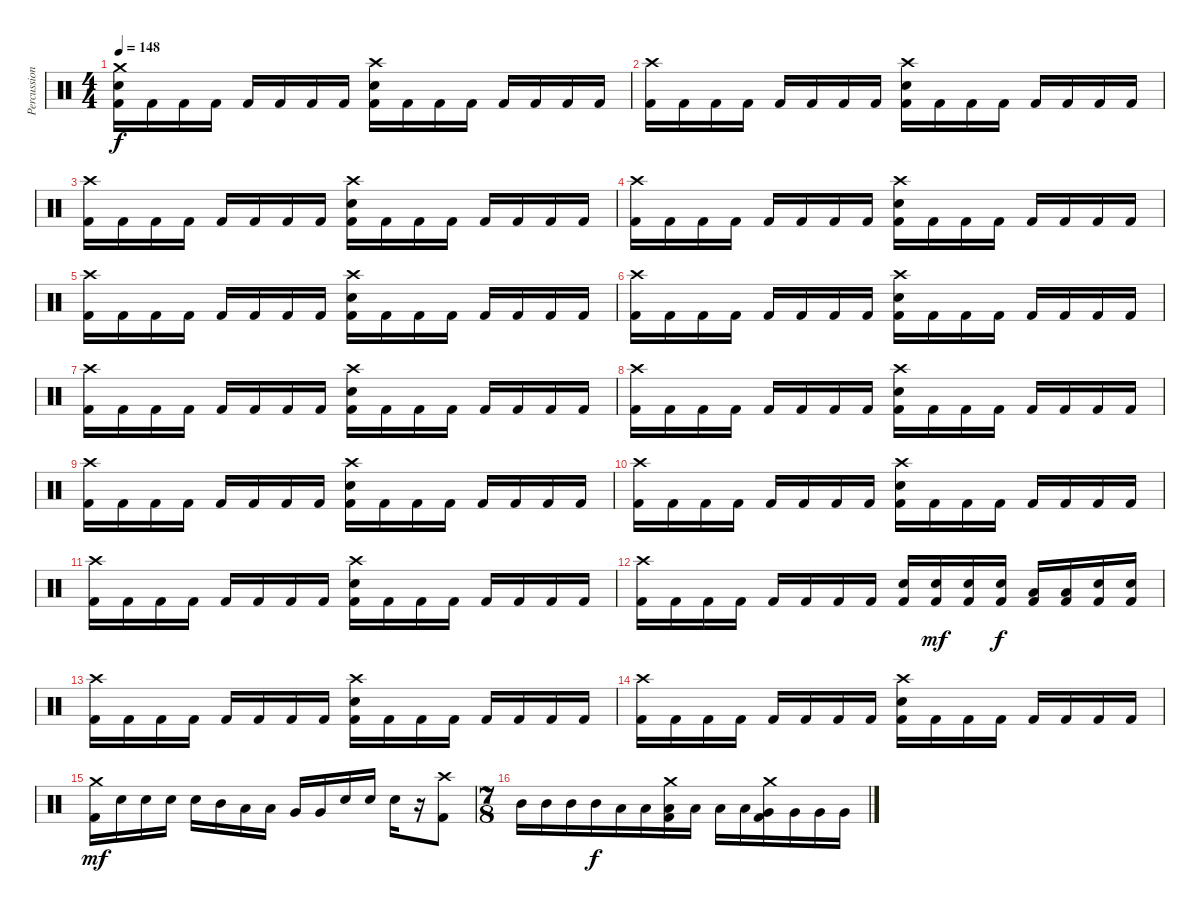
\track ("Percussion" "Percussion") {instrument percussion}
\staff {score}
\articulation defaults
\ts (4 4)
\tempo 148
\clef neutral
\ks c
("Crash medium (hit)" "Electric Snare (hit)" "Kick (hit) 2").16{dy f} "Kick (hit) 2".16 "Kick (hit) 2".16 "Kick (hit) 2".16 "Kick (hit) 2".16 "Kick (hit) 2".16 "Kick (hit) 2".16 "Kick (hit) 2".16 ("Crash high (hit)" "Electric Snare (hit)" "Kick (hit) 2").16 "Kick (hit) 2".16 "Kick (hit) 2".16 "Kick (hit) 2".16 "Kick (hit) 2".16 "Kick (hit) 2".16 "Kick (hit) 2".16 "Kick (hit) 2".16 |
("Crash high (hit)" "Kick (hit) 2").16 "Kick (hit) 2".16 "Kick (hit) 2".16 "Kick (hit) 2".16 "Kick (hit) 2".16 "Kick (hit) 2".16 "Kick (hit) 2".16 "Kick (hit) 2".16 ("Crash high (hit)" "Electric Snare (hit)" "Kick (hit) 2").16 "Kick (hit) 2".16 "Kick (hit) 2".16 "Kick (hit) 2".16 "Kick (hit) 2".16 "Kick (hit) 2".16 "Kick (hit) 2".16 "Kick (hit) 2".16 |
("Crash high (hit)" "Kick (hit) 2").16 "Kick (hit) 2".16 "Kick (hit) 2".16 "Kick (hit) 2".16 "Kick (hit) 2".16 "Kick (hit) 2".16 "Kick (hit) 2".16 "Kick (hit) 2".16 ("Crash high (hit)" "Electric Snare (hit)" "Kick (hit) 2").16 "Kick (hit) 2".16 "Kick (hit) 2".16 "Kick (hit) 2".16 "Kick (hit) 2".16 "Kick (hit) 2".16 "Kick (hit) 2".16 "Kick (hit) 2".16 |
("Crash high (hit)" "Kick (hit) 2").16 "Kick (hit) 2".16 "Kick (hit) 2".16 "Kick (hit) 2".16 "Kick (hit) 2".16 "Kick (hit) 2".16 "Kick (hit) 2".16 "Kick (hit) 2".16 ("Crash high (hit)" "Electric Snare (hit)" "Kick (hit) 2").16 "Kick (hit) 2".16 "Kick (hit) 2".16 "Kick (hit) 2".16 "Kick (hit) 2".16 "Kick (hit) 2".16 "Kick (hit) 2".16 "Kick (hit) 2".16 |
("Crash high (hit)" "Kick (hit) 2").16 "Kick (hit) 2".16 "Kick (hit) 2".16 "Kick (hit) 2".16 "Kick (hit) 2".16 "Kick (hit) 2".16 "Kick (hit) 2".16 "Kick (hit) 2".16 ("Crash high (hit)" "Electric Snare (hit)" "Kick (hit) 2").16 "Kick (hit) 2".16 "Kick (hit) 2".16 "Kick (hit) 2".16 "Kick (hit) 2".16 "Kick (hit) 2".16 "Kick (hit) 2".16 "Kick (hit) 2".16 |
("Crash high (hit)" "Kick (hit) 2").16 "Kick (hit) 2".16 "Kick (hit) 2".16 "Kick (hit) 2".16 "Kick (hit) 2".16 "Kick (hit) 2".16 "Kick (hit) 2".16 "Kick (hit) 2".16 ("Crash high (hit)" "Electric Snare (hit)" "Kick (hit) 2").16 "Kick (hit) 2".16 "Kick (hit) 2".16 "Kick (hit) 2".16 "Kick (hit) 2".16 "Kick (hit) 2".16 "Kick (hit) 2".16 "Kick (hit) 2".16 |
("Crash high (hit)" "Kick (hit) 2").16 "Kick (hit) 2".16 "Kick (hit) 2".16 "Kick (hit) 2".16 "Kick (hit) 2".16 "Kick (hit) 2".16 "Kick (hit) 2".16 "Kick (hit) 2".16 ("Crash high (hit)" "Electric Snare (hit)" "Kick (hit) 2").16 "Kick (hit) 2".16 "Kick (hit) 2".16 "Kick (hit) 2".16 "Kick (hit) 2".16 "Kick (hit) 2".16 "Kick (hit) 2".16 "Kick (hit) 2".16 |
("Crash high (hit)" "Kick (hit) 2").16 "Kick (hit) 2".16 "Kick (hit) 2".16 "Kick (hit) 2".16 "Kick (hit) 2".16 "Kick (hit) 2".16 "Kick (hit) 2".16 "Kick (hit) 2".16 ("Crash high (hit)" "Electric Snare (hit)" "Kick (hit) 2").16 "Kick (hit) 2".16 "Kick (hit) 2".16 "Kick (hit) 2".16 "Kick (hit) 2".16 "Kick (hit) 2".16 "Kick (hit) 2".16 "Kick (hit) 2".16 |
("Crash high (hit)" "Kick (hit) 2").16 "Kick (hit) 2".16 "Kick (hit) 2".16 "Kick (hit) 2".16 "Kick (hit) 2".16 "Kick (hit) 2".16 "Kick (hit) 2".16 "Kick (hit) 2".16 ("Crash high (hit)" "Electric Snare (hit)" "Kick (hit) 2").16 "Kick (hit) 2".16 "Kick (hit) 2".16 "Kick (hit) 2".16 "Kick (hit) 2".16 "Kick (hit) 2".16 "Kick (hit) 2".16 "Kick (hit) 2".16 |
("Crash high (hit)" "Kick (hit) 2").16 "Kick (hit) 2".16 "Kick (hit) 2".16 "Kick (hit) 2".16 "Kick (hit) 2".16 "Kick (hit) 2".16 "Kick (hit) 2".16 "Kick (hit) 2".16 ("Crash high (hit)" "Electric Snare (hit)" "Kick (hit) 2").16 "Kick (hit) 2".16 "Kick (hit) 2".16 "Kick (hit) 2".16 "Kick (hit) 2".16 "Kick (hit) 2".16 "Kick (hit) 2".16 "Kick (hit) 2".16 |
("Crash high (hit)" "Kick (hit) 2").16 "Kick (hit) 2".16 "Kick (hit) 2".16 "Kick (hit) 2".16 "Kick (hit) 2".16 "Kick (hit) 2".16 "Kick (hit) 2".16 "Kick (hit) 2".16 ("Crash high (hit)" "Electric Snare (hit)" "Kick (hit) 2").16 "Kick (hit) 2".16 "Kick (hit) 2".16 "Kick (hit) 2".16 "Kick (hit) 2".16 "Kick (hit) 2".16 "Kick (hit) 2".16 "Kick (hit) 2".16 |
("Crash high (hit)" "Kick (hit) 2").16 "Kick (hit) 2".16 "Kick (hit) 2".16 "Kick (hit) 2".16 "Kick (hit) 2".16 "Kick (hit) 2".16 "Kick (hit) 2".16 "Kick (hit) 2".16 ("Electric Snare (hit)" "Kick (hit) 2").16 ("Electric Snare (hit)" "Kick (hit) 2").16{dy mf} ("Electric Snare (hit)" "Kick (hit) 2").16 ("Electric Snare (hit)" "Kick (hit) 2").16{dy f} ("Low Tom (hit)" "Kick (hit) 2").16 ("Low Tom (hit)" "Kick (hit) 2").16 ("Electric Snare (hit)" "Kick (hit) 2").16 ("Electric Snare (hit)" "Kick (hit) 2").16 |
("Crash high (hit)" "Kick (hit) 2").16 "Kick (hit) 2".16 "Kick (hit) 2".16 "Kick (hit) 2".16 "Kick (hit) 2".16 "Kick (hit) 2".16 "Kick (hit) 2".16 "Kick (hit) 2".16 ("Crash high (hit)" "Electric Snare (hit)" "Kick (hit) 2").16 "Kick (hit) 2".16 "Kick (hit) 2".16 "Kick (hit) 2".16 "Kick (hit) 2".16 "Kick (hit) 2".16 "Kick (hit) 2".16 "Kick (hit) 2".16 |
("Crash high (hit)" "Kick (hit) 2").16 "Kick (hit) 2".16 "Kick (hit) 2".16 "Kick (hit) 2".16 "Kick (hit) 2".16 "Kick (hit) 2".16 "Kick (hit) 2".16 "Kick (hit) 2".16 ("Crash high (hit)" "Electric Snare (hit)" "Kick (hit) 2").16 "Kick (hit) 2".16 "Kick (hit) 2".16 "Kick (hit) 2".16 "Kick (hit) 2".16 "Kick (hit) 2".16 "Kick (hit) 2".16 "Kick (hit) 2".16 |
("Crash medium (hit)" "Kick (hit) 2").16{dy mf} "Electric Snare (hit)".16 "Electric Snare (hit)".16 "Electric Snare (hit)".16 "Electric Snare (hit)".16 "Mid Tom (hit)".16 "Low Tom (hit)".16 "Low Tom (hit)".16 "Very Low Tom (hit)".16 "Very Low Tom (hit)".16 "Electric Snare (hit)".16 "Electric Snare (hit)".16 "Electric Snare (hit)".16 r.16 ("Crash high (hit)" "Kick (hit) 2").8 |
\ts (7 8)
"Mid Tom (hit)".16 "Mid Tom (hit)".16 "Mid Tom (hit)".16 "Mid Tom (hit)".16{dy f} "Low Tom (hit)".16 "Low Tom (hit)".16 ("Crash medium (hit)" "Low Tom (hit)" "Kick (hit) 2").16 "Low Tom (hit)".16 "Low Tom (hit)".16 "Low Tom (hit)".16 ("Crash medium (hit)" "Very Low Tom (hit)" "Kick (hit) 2").16 "Very Low Tom (hit)".16 "Very Low Tom (hit)".16 "Very Low Tom (hit)".16
